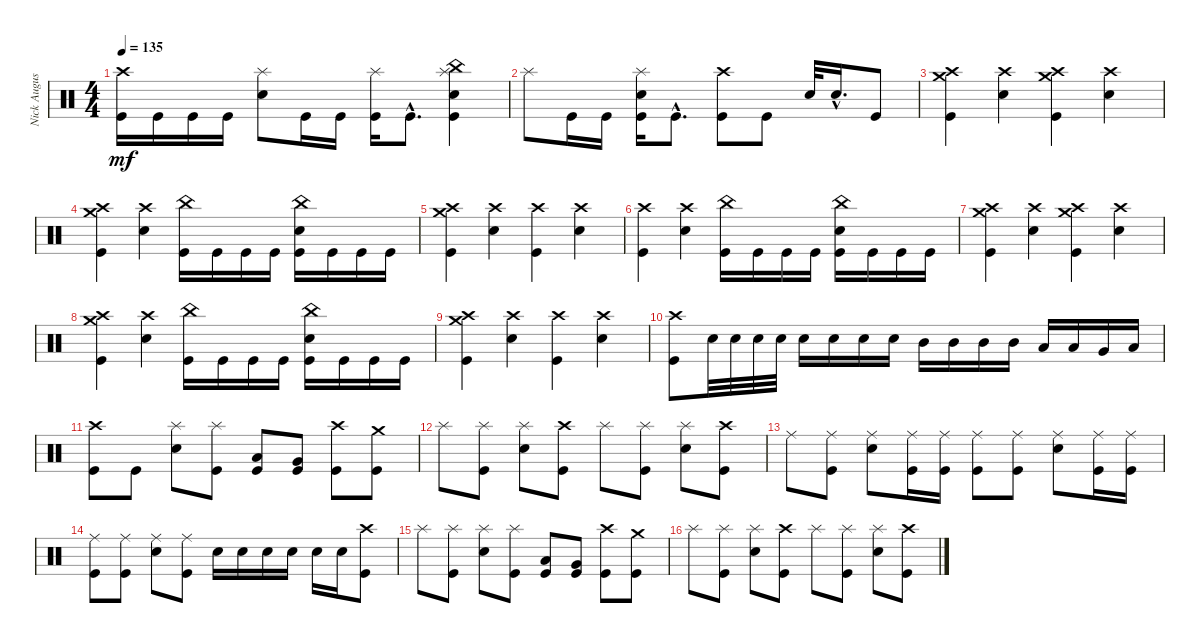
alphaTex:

\track ("Nick Augusto" "Nick Augus") {instrument percussion}
\staff {score}
\articulation defaults
\ts (4 4)
\tempo 135
\clef neutral
\ks c
("Kick (hit)" "Crash high (hit)").16{dy mf} "Kick (hit)".16 "Kick (hit)".16 "Kick (hit)".16 ("Snare (hit) 2" "Splash (hit)").8 "Kick (hit)".16 "Kick (hit)".16 ("Kick (hit)" "Splash (hit)").16 "Kick (hit)"{hac}.8{d} ("Kick (hit)" "Snare (hit) 2" "China (hit)" "Splash (hit)").4 |
"Splash (hit)".8 "Kick (hit)".16 "Kick (hit)".16 ("Kick (hit)" "Snare (hit) 2" "Splash (hit)").16 "Kick (hit)"{hac}.8{d} ("Kick (hit)" "Crash high (hit)").8 "Kick (hit)".8 "Snare (hit) 2".32 "Snare (hit) 2"{hac}.16{d} "Kick (hit)".8 |
("Kick (hit)" "Crash high (hit)" "Crash medium (hit)").4 ("Snare (hit) 2" "Crash high (hit)").4 ("Kick (hit)" "Crash high (hit)" "Crash medium (hit)").4 ("Snare (hit) 2" "Crash high (hit)").4 |
("Kick (hit)" "Crash high (hit)" "Crash medium (hit)").4 ("Snare (hit) 2" "Crash high (hit)").4 ("Kick (hit)" "China (hit)").16 "Kick (hit)".16 "Kick (hit)".16 "Kick (hit)".16 ("Kick (hit)" "Snare (hit) 2" "China (hit)").16 "Kick (hit)".16 "Kick (hit)".16 "Kick (hit)".16 |
("Kick (hit)" "Crash high (hit)" "Crash medium (hit)").4 ("Snare (hit) 2" "Crash high (hit)").4 ("Kick (hit)" "Crash high (hit)").4 ("Snare (hit) 2" "Crash high (hit)").4 |
("Kick (hit)" "Crash high (hit)").4 ("Snare (hit) 2" "Crash high (hit)").4 ("Kick (hit)" "China (hit)").16 "Kick (hit)".16 "Kick (hit)".16 "Kick (hit)".16 ("Kick (hit)" "Snare (hit) 2" "China (hit)").16 "Kick (hit)".16 "Kick (hit)".16 "Kick (hit)".16 |
("Kick (hit)" "Crash high (hit)" "Crash medium (hit)").4 ("Snare (hit) 2" "Crash high (hit)").4 ("Kick (hit)" "Crash high (hit)" "Crash medium (hit)").4 ("Snare (hit) 2" "Crash high (hit)").4 |
("Kick (hit)" "Crash high (hit)" "Crash medium (hit)").4 ("Snare (hit) 2" "Crash high (hit)").4 ("Kick (hit)" "China (hit)").16 "Kick (hit)".16 "Kick (hit)".16 "Kick (hit)".16 ("Kick (hit)" "Snare (hit) 2" "China (hit)").16 "Kick (hit)".16 "Kick (hit)".16 "Kick (hit)".16 |
("Kick (hit)" "Crash high (hit)" "Crash medium (hit)").4 ("Snare (hit) 2" "Crash high (hit)").4 ("Kick (hit)" "Crash high (hit)").4 ("Snare (hit) 2" "Crash high (hit)").4 |
("Kick (hit)" "Crash high (hit)").8 "Snare (hit) 2".32 "Snare (hit) 2".32 "Snare (hit) 2".32 "Snare (hit) 2".32 "Snare (hit) 2".16 "Snare (hit) 2".16 "Snare (hit) 2".16 "Snare (hit) 2".16 "Mid Tom (hit)".16 "Mid Tom (hit)".16 "Mid Tom (hit)".16 "Mid Tom (hit)".16 "Low Tom (hit)".16 "Low Tom (hit)".16 "Very Low Tom (hit)".16 "Low Floor Tom (hit)".16 |
("Kick (hit)" "Crash high (hit)").8 "Kick (hit)".8 ("Snare (hit) 2" "Splash (hit)").8 ("Kick (hit)" "Splash (hit)").8 ("Kick (hit)" "Low Tom (hit)").8 ("Kick (hit)" "Very Low Tom (hit)").8 ("Kick (hit)" "Crash high (hit)").8 ("Kick (hit)" "Crash medium (hit)").8 |
"Splash (hit)".8 ("Kick (hit)" "Splash (hit)").8 ("Snare (hit) 2" "Splash (hit)").8 ("Kick (hit)" "Crash high (hit)").8 "Splash (hit)".8 ("Kick (hit)" "Splash (hit)").8 ("Snare (hit) 2" "Splash (hit)").8 ("Kick (hit)" "Crash high (hit)").8 |
"Ride (middle)".8 ("Kick (hit)" "Ride (middle)").8 ("Snare (hit) 2" "Ride (middle)").8 ("Kick (hit)" "Ride (middle)").16 ("Kick (hit)" "Ride (middle)").16 ("Kick (hit)" "Ride (middle)").8 ("Kick (hit)" "Ride (middle)").8 ("Snare (hit) 2" "Ride (middle)").8 ("Kick (hit)" "Ride (middle)").16 ("Kick (hit)" "Ride (middle)").16 |
("Kick (hit)" "Ride (middle)").8 ("Kick (hit)" "Ride (middle)").8 ("Snare (hit) 2" "Ride (middle)").8 ("Kick (hit)" "Ride (middle)").8 "Snare (hit) 2".16 "Snare (hit) 2".16 "Snare (hit) 2".16 "Snare (hit) 2".16 "Snare (hit) 2".16 "Snare (hit) 2".16 ("Kick (hit)" "Crash high (hit)").8 |
"Splash (hit)".8 ("Kick (hit)" "Splash (hit)").8 ("Snare (hit) 2" "Splash (hit)").8 ("Kick (hit)" "Splash (hit)").8 ("Kick (hit)" "Low Tom (hit)").8 ("Kick (hit)" "Very Low Tom (hit)").8 ("Kick (hit)" "Crash high (hit)").8 ("Kick (hit)" "Crash medium (hit)").8 |
"Splash (hit)".8 ("Kick (hit)" "Splash (hit)").8 ("Snare (hit) 2" "Splash (hit)").8 ("Kick (hit)" "Crash high (hit)").8 "Splash (hit)".8 ("Kick (hit)" "Splash (hit)").8 ("Snare (hit) 2" "Splash (hit)").8 ("Kick (hit)" "Crash high (hit)").8
